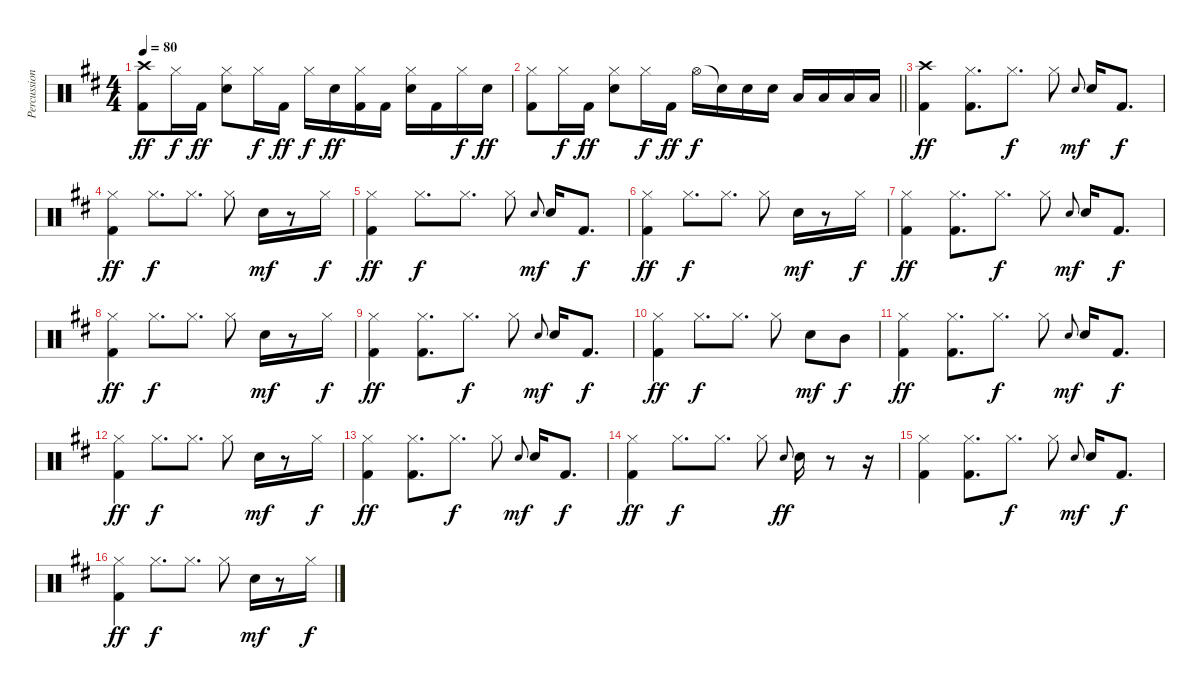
\track ("Percussion" "Percussion") {instrument percussion}
\staff {score}
\articulation defaults
\ts (4 4)
\tempo 80
\clef neutral
\ks bminor
("Crash high (hit)" "Kick (hit) 2").8{dy ff} "Hi-Hat (closed)".16{dy f} "Kick (hit) 2".16{dy ff} ("Hi-Hat (closed)" "Snare (hit) 2").8 "Hi-Hat (closed)".16{dy f} "Kick (hit) 2".16{dy ff} "Hi-Hat (closed)".16{dy f} "Snare (hit) 2".16{dy ff} ("Hi-Hat (closed)" "Kick (hit) 2").16 "Kick (hit) 2".16 ("Hi-Hat (closed)" "Snare (hit) 2").16 "Kick (hit) 2".16 "Hi-Hat (closed)".16{dy f} "Snare (hit) 2".16{dy ff} |
\barLineRight lightlight
("Hi-Hat (closed)" "Kick (hit) 2").8 "Hi-Hat (closed)".16{dy f} "Kick (hit) 2".16{dy ff} ("Hi-Hat (closed)" "Snare (hit) 2").8 "Hi-Hat (closed)".16{dy f} "Kick (hit) 2".16{dy ff} "Hi-Hat (open)".16{dy f} "Snare (hit)"{t}.16 "Snare (hit) 2".16 "Snare (hit) 2".16 "Low Tom (hit)".16 "Low Tom (hit)".16 "Low Floor Tom (hit)".16 "Low Floor Tom (hit)".16 |
("Crash high (hit)" "Kick (hit) 2").4{dy ff} ("Hi-Hat (closed)" "Kick (hit) 2").8{d} "Hi-Hat (closed)".8{d dy f} "Hi-Hat (closed)".8 "Electric Snare (hit)".8{gr onbeat dy mf} "Electric Snare (hit)".16 "Kick (hit) 2".8{d dy f} |
("Hi-Hat (closed)" "Kick (hit) 2").4{dy ff} "Hi-Hat (closed)".8{d dy f} "Hi-Hat (closed)".8{d} "Hi-Hat (closed)".8 "Electric Snare (hit)".16{dy mf} r.8 "Hi-Hat (closed)".16{dy f} |
("Hi-Hat (closed)" "Kick (hit) 2").4{dy ff} "Hi-Hat (closed)".8{d dy f} "Hi-Hat (closed)".8{d} "Hi-Hat (closed)".8 "Electric Snare (hit)".8{gr onbeat dy mf} "Electric Snare (hit)".16 "Kick (hit) 2".8{d dy f} |
("Hi-Hat (closed)" "Kick (hit) 2").4{dy ff} "Hi-Hat (closed)".8{d dy f} "Hi-Hat (closed)".8{d} "Hi-Hat (closed)".8 "Electric Snare (hit)".16{dy mf} r.8 "Hi-Hat (closed)".16{dy f} |
("Hi-Hat (closed)" "Kick (hit) 2").4{dy ff} ("Hi-Hat (closed)" "Kick (hit) 2").8{d} "Hi-Hat (closed)".8{d dy f} "Hi-Hat (closed)".8 "Electric Snare (hit)".8{gr onbeat dy mf} "Electric Snare (hit)".16 "Kick (hit) 2".8{d dy f} |
("Hi-Hat (closed)" "Kick (hit) 2").4{dy ff} "Hi-Hat (closed)".8{d dy f} "Hi-Hat (closed)".8{d} "Hi-Hat (closed)".8 "Electric Snare (hit)".16{dy mf} r.8 "Hi-Hat (closed)".16{dy f} |
("Hi-Hat (closed)" "Kick (hit) 2").4{dy ff} ("Hi-Hat (closed)" "Kick (hit) 2").8{d} "Hi-Hat (closed)".8{d dy f} "Hi-Hat (closed)".8 "Electric Snare (hit)".8{gr onbeat dy mf} "Electric Snare (hit)".16 "Kick (hit) 2".8{d dy f} |
("Hi-Hat (closed)" "Kick (hit) 2").4{dy ff} "Hi-Hat (closed)".8{d dy f} "Hi-Hat (closed)".8{d} "Hi-Hat (closed)".8 "Electric Snare (hit)".8{dy mf} "Mid Tom (hit)".8{dy f} |
("Hi-Hat (closed)" "Kick (hit) 2").4{dy ff} ("Hi-Hat (closed)" "Kick (hit) 2").8{d} "Hi-Hat (closed)".8{d dy f} "Hi-Hat (closed)".8 "Electric Snare (hit)".8{gr onbeat dy mf} "Electric Snare (hit)".16 "Kick (hit) 2".8{d dy f} |
("Hi-Hat (closed)" "Kick (hit) 2").4{dy ff} "Hi-Hat (closed)".8{d dy f} "Hi-Hat (closed)".8{d} "Hi-Hat (closed)".8 "Electric Snare (hit)".16{dy mf} r.8 "Hi-Hat (closed)".16{dy f} |
("Hi-Hat (closed)" "Kick (hit) 2").4{dy ff} ("Hi-Hat (closed)" "Kick (hit) 2").8{d} "Hi-Hat (closed)".8{d dy f} "Hi-Hat (closed)".8 "Electric Snare (hit)".8{gr onbeat dy mf} "Electric Snare (hit)".16 "Kick (hit) 2".8{d dy f} |
("Hi-Hat (closed)" "Kick (hit) 2").4{dy ff} "Hi-Hat (closed)".8{d dy f} "Hi-Hat (closed)".8{d} "Hi-Hat (closed)".8 "Electric Snare (hit)".8{gr onbeat dy ff} "Electric Snare (hit)".16 r.8 r.16 |
("Hi-Hat (closed)" "Kick (hit) 2").4 ("Hi-Hat (closed)" "Kick (hit) 2").8{d} "Hi-Hat (closed)".8{d dy f} "Hi-Hat (closed)".8 "Electric Snare (hit)".8{gr onbeat dy mf} "Electric Snare (hit)".16 "Kick (hit) 2".8{d dy f} |
("Hi-Hat (closed)" "Kick (hit) 2").4{dy ff} "Hi-Hat (closed)".8{d dy f} "Hi-Hat (closed)".8{d} "Hi-Hat (closed)".8 "Electric Snare (hit)".16{dy mf} r.8 "Hi-Hat (closed)".16{dy f}
